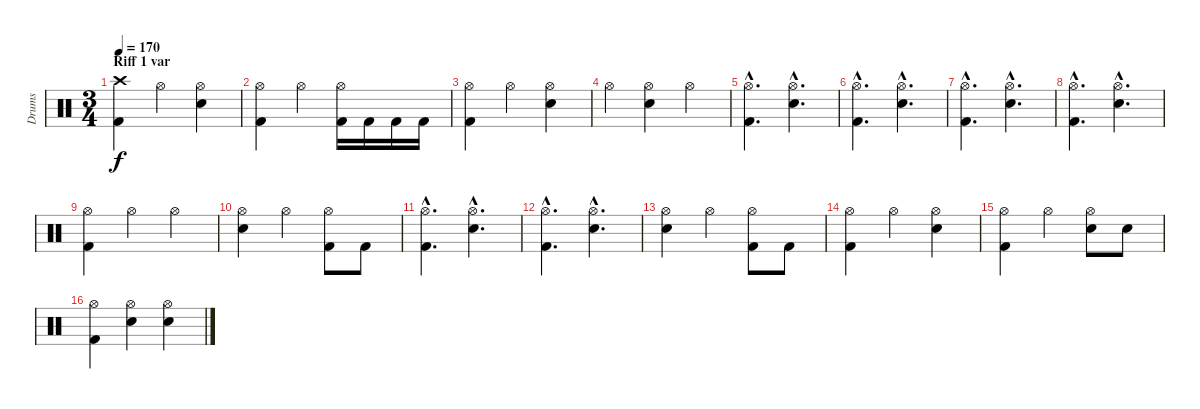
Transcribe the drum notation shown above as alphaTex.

\track ("Drums" "Drums") {instrument percussion}
\staff {score}
\articulation defaults
\ts (3 4)
\section ("" "Riff 1 var")
\tempo 170
\clef neutral
\ks c
("Crash high (hit)" "Kick (hit) 2").4{dy f} "Hi-Hat (open)".4 ("Hi-Hat (open)" "Electric Snare (hit)").4 |
("Hi-Hat (open)" "Kick (hit) 2").4 "Hi-Hat (open)".4 ("Hi-Hat (open)" "Kick (hit) 2").16 "Kick (hit) 2".16 "Kick (hit) 2".16 "Kick (hit) 2".16 |
("Hi-Hat (open)" "Kick (hit) 2").4 "Hi-Hat (open)".4 ("Hi-Hat (open)" "Electric Snare (hit)").4 |
"Hi-Hat (open)".4 ("Hi-Hat (open)" "Electric Snare (hit)").4 "Hi-Hat (open)".4 |
("Hi-Hat (open)"{hac} "Kick (hit) 2"{hac}).4{d} ("Hi-Hat (open)"{hac} "Electric Snare (hit)"{hac}).4{d} |
("Hi-Hat (open)"{hac} "Kick (hit) 2"{hac}).4{d} ("Hi-Hat (open)"{hac} "Electric Snare (hit)"{hac}).4{d} |
("Hi-Hat (open)"{hac} "Kick (hit) 2"{hac}).4{d} ("Hi-Hat (open)"{hac} "Electric Snare (hit)"{hac}).4{d} |
("Hi-Hat (open)"{hac} "Kick (hit) 2"{hac}).4{d} ("Hi-Hat (open)"{hac} "Electric Snare (hit)"{hac}).4{d} |
("Hi-Hat (open)" "Kick (hit) 2").4 "Hi-Hat (open)".4 "Hi-Hat (open)".4 |
("Hi-Hat (open)" "Electric Snare (hit)").4 "Hi-Hat (open)".4 ("Hi-Hat (open)" "Kick (hit) 2").8 "Kick (hit) 2".8 |
("Hi-Hat (open)"{hac} "Kick (hit) 2"{hac}).4{d} ("Hi-Hat (open)"{hac} "Electric Snare (hit)"{hac}).4{d} |
("Hi-Hat (open)"{hac} "Kick (hit) 2"{hac}).4{d} ("Hi-Hat (open)"{hac} "Electric Snare (hit)"{hac}).4{d} |
("Hi-Hat (open)" "Electric Snare (hit)").4 "Hi-Hat (open)".4 ("Hi-Hat (open)" "Kick (hit) 2").8 "Kick (hit) 2".8 |
("Hi-Hat (open)" "Kick (hit) 2").4 "Hi-Hat (open)".4 ("Hi-Hat (open)" "Electric Snare (hit)").4 |
("Hi-Hat (open)" "Kick (hit) 2").4 "Hi-Hat (open)".4 ("Hi-Hat (open)" "Electric Snare (hit)").8 "Electric Snare (hit)".8 |
("Hi-Hat (open)" "Kick (hit) 2").4 ("Hi-Hat (open)" "Electric Snare (hit)").4 ("Hi-Hat (open)" "Electric Snare (hit)").4
